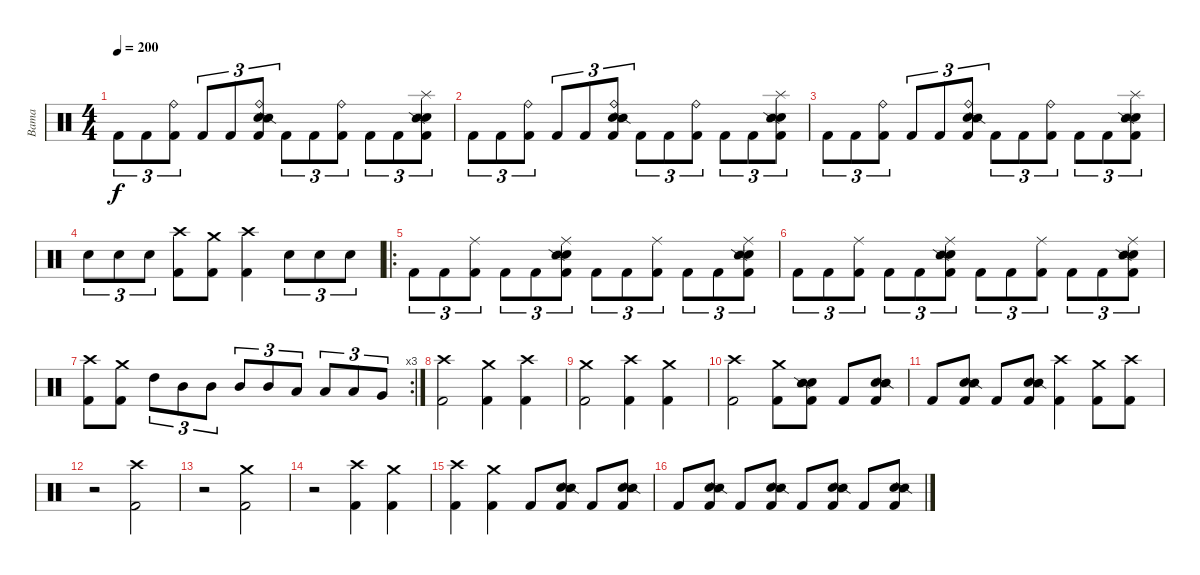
\track ("Bama" "Bama") {instrument percussion}
\staff {score}
\articulation defaults
\ts (4 4)
\tempo 200
\clef neutral
\ks c "Kick (hit) 2".8{tu (3 2) dy f} "Kick (hit) 2".8{tu (3 2)}
("Ride (bell)" "Kick (hit) 2").8{tu (3 2)} "Kick (hit) 2".8{tu (3 2)} "Kick (hit) 2".8{tu (3 2)} ("Ride (bell)" "Electric Snare (hit)" "Snare (side stick) 2" "Kick (hit) 2").8{tu (3 2)} "Kick (hit) 2".8{tu (3 2)} "Kick (hit) 2".8{tu (3 2)} ("Ride (bell)" "Kick (hit) 2").8{tu (3 2)} "Kick (hit) 2".8{tu (3 2)} "Kick (hit) 2".8{tu (3 2)} ("Splash (hit)" "Electric Snare (hit)" "Snare (side stick) 2" "Kick (hit) 2").8{tu (3 2)} |
"Kick (hit) 2".8{tu (3 2)} "Kick (hit) 2".8{tu (3 2)} ("Ride (bell)" "Kick (hit) 2").8{tu (3 2)} "Kick (hit) 2".8{tu (3 2)} "Kick (hit) 2".8{tu (3 2)} ("Ride (bell)" "Electric Snare (hit)" "Snare (side stick) 2" "Kick (hit) 2").8{tu (3 2)} "Kick (hit) 2".8{tu (3 2)} "Kick (hit) 2".8{tu (3 2)} ("Ride (bell)" "Kick (hit) 2").8{tu (3 2)} "Kick (hit) 2".8{tu (3 2)} "Kick (hit) 2".8{tu (3 2)} ("Splash (hit)" "Electric Snare (hit)" "Snare (side stick) 2" "Kick (hit) 2").8{tu (3 2)} |
"Kick (hit) 2".8{tu (3 2)} "Kick (hit) 2".8{tu (3 2)} ("Ride (bell)" "Kick (hit) 2").8{tu (3 2)} "Kick (hit) 2".8{tu (3 2)} "Kick (hit) 2".8{tu (3 2)} ("Ride (bell)" "Electric Snare (hit)" "Snare (side stick) 2" "Kick (hit) 2").8{tu (3 2)} "Kick (hit) 2".8{tu (3 2)} "Kick (hit) 2".8{tu (3 2)} ("Ride (bell)" "Kick (hit) 2").8{tu (3 2)} "Kick (hit) 2".8{tu (3 2)} "Kick (hit) 2".8{tu (3 2)} ("Splash (hit)" "Electric Snare (hit)" "Snare (side stick) 2" "Kick (hit) 2").8{tu (3 2)} |
"Electric Snare (hit)".8{tu (3 2)} "Electric Snare (hit)".8{tu (3 2)} "Electric Snare (hit)".8{tu (3 2)} ("Crash high (hit)" "Kick (hit) 2").8 ("Crash medium (hit)" "Kick (hit) 2").8 ("Crash high (hit)" "Kick (hit) 2").4 "Electric Snare (hit)".8{tu (3 2)} "Electric Snare (hit)".8{tu (3 2)} "Electric Snare (hit)".8{tu (3 2)} |
\ro "Kick (hit) 2".8{tu (3 2)} "Kick (hit) 2".8{tu (3 2)}
("Ride (middle)" "Kick (hit) 2").8{tu (3 2)} "Kick (hit) 2".8{tu (3 2)} "Kick (hit) 2".8{tu (3 2)} ("Ride (middle)" "Electric Snare (hit)" "Snare (side stick) 2" "Kick (hit) 2").8{tu (3 2)} "Kick (hit) 2".8{tu (3 2)} "Kick (hit) 2".8{tu (3 2)} ("Ride (middle)" "Kick (hit) 2").8{tu (3 2)} "Kick (hit) 2".8{tu (3 2)} "Kick (hit) 2".8{tu (3 2)} ("Ride (middle)" "Electric Snare (hit)" "Snare (side stick) 2" "Kick (hit) 2").8{tu (3 2)} |
"Kick (hit) 2".8{tu (3 2)} "Kick (hit) 2".8{tu (3 2)} ("Ride (middle)" "Kick (hit) 2").8{tu (3 2)} "Kick (hit) 2".8{tu (3 2)} "Kick (hit) 2".8{tu (3 2)} ("Ride (middle)" "Electric Snare (hit)" "Snare (side stick) 2" "Kick (hit) 2").8{tu (3 2)} "Kick (hit) 2".8{tu (3 2)} "Kick (hit) 2".8{tu (3 2)} ("Ride (middle)" "Kick (hit) 2").8{tu (3 2)} "Kick (hit) 2".8{tu (3 2)} "Kick (hit) 2".8{tu (3 2)} ("Ride (middle)" "Electric Snare (hit)" "Snare (side stick) 2" "Kick (hit) 2").8{tu (3 2)} |
\rc 3
("Crash high (hit)" "Kick (hit) 2").8 ("Crash medium (hit)" "Kick (hit) 2").8 "High Tom (hit)".8{tu (3 2)} "Mid Tom (hit)".8{tu (3 2)} "Mid Tom (hit)".8{tu (3 2)} "Mid Tom (hit)".8{tu (3 2)} "Mid Tom (hit)".8{tu (3 2)} "Low Tom (hit)".8{tu (3 2)} "Low Tom (hit)".8{tu (3 2)} "Low Tom (hit)".8{tu (3 2)} "Very Low Tom (hit)".8{tu (3 2)} |
("Crash high (hit)" "Kick (hit) 2").2 ("Crash medium (hit)" "Kick (hit) 2").4 ("Crash high (hit)" "Kick (hit) 2").4 |
("Crash medium (hit)" "Kick (hit) 2").2 ("Crash high (hit)" "Kick (hit) 2").4 ("Crash medium (hit)" "Kick (hit) 2").4 |
("Crash high (hit)" "Kick (hit) 2").2 ("Crash medium (hit)" "Kick (hit) 2").8 ("Electric Snare (hit)" "Snare (side stick) 2" "Kick (hit) 2").8 "Kick (hit) 2".8 ("Electric Snare (hit)" "Snare (side stick) 2" "Kick (hit) 2").8 |
"Kick (hit) 2".8 ("Electric Snare (hit)" "Snare (side stick) 2" "Kick (hit) 2").8 "Kick (hit) 2".8 ("Electric Snare (hit)" "Snare (side stick) 2" "Kick (hit) 2").8 ("Crash high (hit)" "Kick (hit) 2").4 ("Crash medium (hit)" "Kick (hit) 2").8 ("Crash high (hit)" "Kick (hit) 2").8 |
r.2 ("Crash high (hit)" "Kick (hit) 2").2 |
r.2 ("Crash medium (hit)" "Kick (hit) 2").2 |
r.2 ("Crash high (hit)" "Kick (hit) 2").4 ("Crash medium (hit)" "Kick (hit) 2").4 |
("Crash high (hit)" "Kick (hit) 2").4 ("Crash medium (hit)" "Kick (hit) 2").4 "Kick (hit) 2".8 ("Electric Snare (hit)" "Snare (side stick) 2" "Kick (hit) 2").8 "Kick (hit) 2".8 ("Electric Snare (hit)" "Snare (side stick) 2" "Kick (hit) 2").8 |
"Kick (hit) 2".8 ("Electric Snare (hit)" "Snare (side stick) 2" "Kick (hit) 2").8 "Kick (hit) 2".8 ("Electric Snare (hit)" "Snare (side stick) 2" "Kick (hit) 2").8 "Kick (hit) 2".8 ("Electric Snare (hit)" "Snare (side stick) 2" "Kick (hit) 2").8 "Kick (hit) 2".8 ("Electric Snare (hit)" "Snare (side stick) 2" "Kick (hit) 2").8
